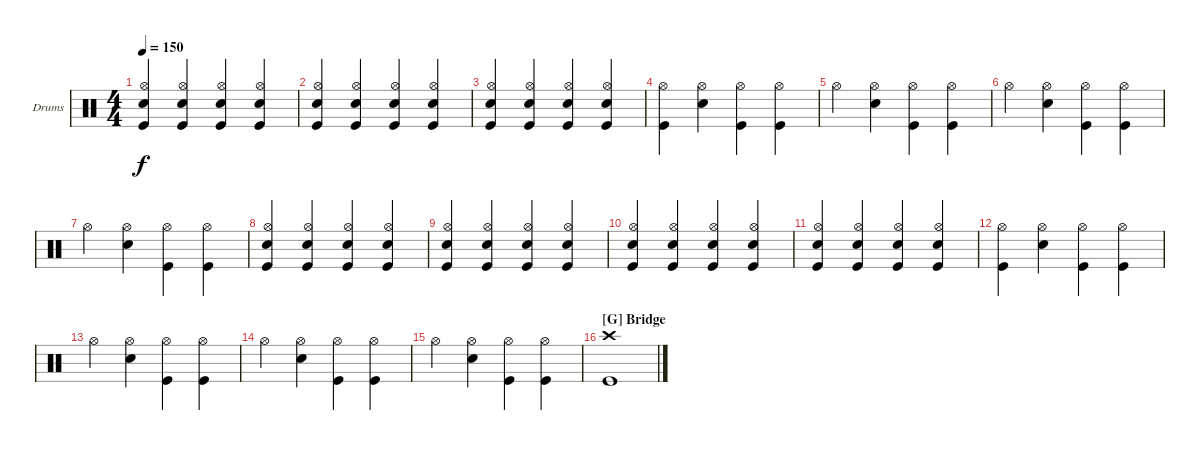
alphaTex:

\defaultSystemsLayout 4
\bracketExtendMode groupsimilarinstruments
\firstSystemTrackNameOrientation horizontal
\otherSystemsTrackNameOrientation horizontal
\track ("Drums" "Drums") {instrument percussion}
\staff {score}
\articulation defaults
\ts (4 4)
\tempo 150
\clef neutral
\scale
0.333333
\ks c
("Kick (hit)" "Hi-Hat (open)" "Snare (hit) 2").4{dy f} ("Kick (hit)" "Hi-Hat (open)" "Snare (hit) 2").4 ("Kick (hit)" "Hi-Hat (open)" "Snare (hit) 2").4 ("Kick (hit)" "Hi-Hat (open)" "Snare (hit) 2").4 |
\scale
0.333333 ("Kick (hit)" "Hi-Hat (open)" "Snare (hit) 2").4 ("Kick (hit)" "Hi-Hat (open)" "Snare (hit) 2").4 ("Kick (hit)" "Hi-Hat (open)" "Snare (hit) 2").4 ("Kick (hit)" "Hi-Hat (open)" "Snare (hit) 2").4 |
\scale
0.333333 ("Kick (hit)" "Hi-Hat (open)" "Snare (hit) 2").4 ("Kick (hit)" "Hi-Hat (open)" "Snare (hit) 2").4 ("Kick (hit)" "Hi-Hat (open)" "Snare (hit) 2").4 ("Kick (hit)" "Hi-Hat (open)" "Snare (hit) 2").4 |
\scale
0.333333 ("Kick (hit)" "Hi-Hat (open)").4 ("Snare (hit) 2" "Hi-Hat (open)").4 ("Kick (hit)" "Hi-Hat (open)").4 ("Kick (hit)" "Hi-Hat (open)").4 |
\scale
0.333333 "Hi-Hat (open)".4 ("Snare (hit) 2" "Hi-Hat (open)").4 ("Kick (hit)" "Hi-Hat (open)").4 ("Kick (hit)" "Hi-Hat (open)").4 |
\scale
0.333333 "Hi-Hat (open)".4 ("Snare (hit) 2" "Hi-Hat (open)").4 ("Kick (hit)" "Hi-Hat (open)").4 ("Kick (hit)" "Hi-Hat (open)").4 |
\scale
0.333333 "Hi-Hat (open)".4 ("Snare (hit) 2" "Hi-Hat (open)").4 ("Kick (hit)" "Hi-Hat (open)").4 ("Kick (hit)" "Hi-Hat (open)").4 |
\scale
0.333333 ("Kick (hit)" "Hi-Hat (open)" "Snare (hit) 2").4 ("Kick (hit)" "Hi-Hat (open)" "Snare (hit) 2").4 ("Kick (hit)" "Hi-Hat (open)" "Snare (hit) 2").4 ("Kick (hit)" "Hi-Hat (open)" "Snare (hit) 2").4 |
\scale
0.333333 ("Kick (hit)" "Hi-Hat (open)" "Snare (hit) 2").4 ("Kick (hit)" "Hi-Hat (open)" "Snare (hit) 2").4 ("Kick (hit)" "Hi-Hat (open)" "Snare (hit) 2").4 ("Kick (hit)" "Hi-Hat (open)" "Snare (hit) 2").4 |
\scale
0.333333 ("Kick (hit)" "Hi-Hat (open)" "Snare (hit) 2").4 ("Kick (hit)" "Hi-Hat (open)" "Snare (hit) 2").4 ("Kick (hit)" "Hi-Hat (open)" "Snare (hit) 2").4 ("Kick (hit)" "Hi-Hat (open)" "Snare (hit) 2").4 |
\scale
0.333333 ("Kick (hit)" "Hi-Hat (open)" "Snare (hit) 2").4 ("Kick (hit)" "Hi-Hat (open)" "Snare (hit) 2").4 ("Kick (hit)" "Hi-Hat (open)" "Snare (hit) 2").4 ("Kick (hit)" "Hi-Hat (open)" "Snare (hit) 2").4 |
\scale
0.333333 ("Kick (hit)" "Hi-Hat (open)").4 ("Snare (hit) 2" "Hi-Hat (open)").4 ("Kick (hit)" "Hi-Hat (open)").4 ("Kick (hit)" "Hi-Hat (open)").4 |
\scale
0.333333 "Hi-Hat (open)".4 ("Snare (hit) 2" "Hi-Hat (open)").4 ("Kick (hit)" "Hi-Hat (open)").4 ("Kick (hit)" "Hi-Hat (open)").4 |
\scale
0.333333 "Hi-Hat (open)".4 ("Snare (hit) 2" "Hi-Hat (open)").4 ("Kick (hit)" "Hi-Hat (open)").4 ("Kick (hit)" "Hi-Hat (open)").4 |
\scale
0.333333 "Hi-Hat (open)".4 ("Snare (hit) 2" "Hi-Hat (open)").4 ("Kick (hit)" "Hi-Hat (open)").4 ("Kick (hit)" "Hi-Hat (open)").4 |
\section ("G" "Bridge")
\scale
0.333333 ("Kick (hit)" "Crash high (hit)").1
